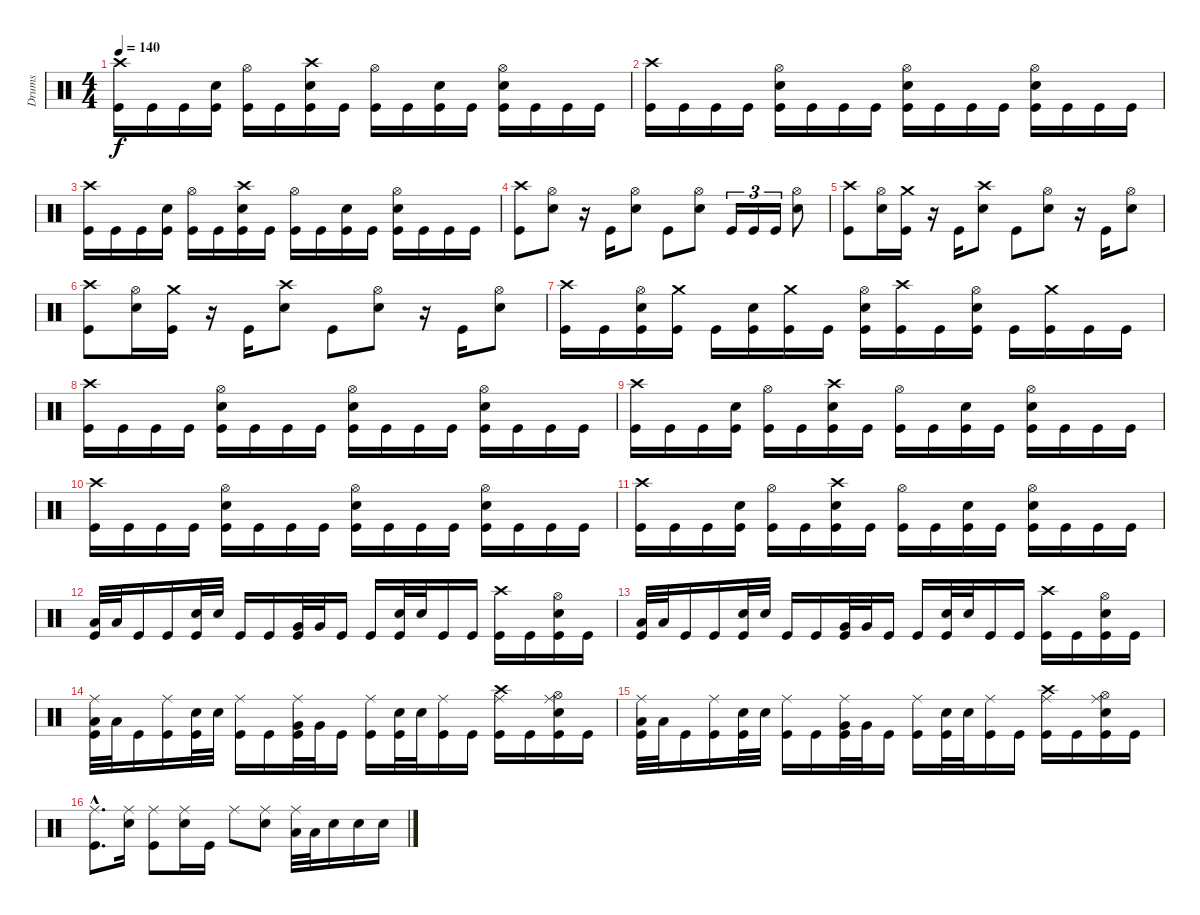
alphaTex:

\track ("Drums" "Drums") {instrument percussion}
\staff {score}
\articulation defaults
\ts (4 4)
\tempo 140
\clef neutral
\ks c
("Kick (hit)" "Crash high (hit)").16{dy f} "Kick (hit)".16 "Kick (hit)".16 ("Kick (hit)" "Snare (hit) 2").16 ("Kick (hit)" "Hi-Hat (open)").16 "Kick (hit)".16 ("Kick (hit)" "Snare (hit) 2" "Crash high (hit)").16 "Kick (hit)".16 ("Kick (hit)" "Hi-Hat (open)").16 "Kick (hit)".16 ("Kick (hit)" "Snare (hit) 2").16 "Kick (hit)".16 ("Kick (hit)" "Snare (hit) 2" "Hi-Hat (open)").16 "Kick (hit)".16 "Kick (hit)".16 "Kick (hit)".16 |
("Kick (hit)" "Crash high (hit)").16 "Kick (hit)".16 "Kick (hit)".16 "Kick (hit)".16 ("Kick (hit)" "Snare (hit) 2" "Hi-Hat (open)").16 "Kick (hit)".16 "Kick (hit)".16 "Kick (hit)".16 ("Kick (hit)" "Snare (hit) 2" "Hi-Hat (open)").16 "Kick (hit)".16 "Kick (hit)".16 "Kick (hit)".16 ("Kick (hit)" "Snare (hit) 2" "Hi-Hat (open)").16 "Kick (hit)".16 "Kick (hit)".16 "Kick (hit)".16 |
("Kick (hit)" "Crash high (hit)").16 "Kick (hit)".16 "Kick (hit)".16 ("Kick (hit)" "Snare (hit) 2").16 ("Kick (hit)" "Hi-Hat (open)").16 "Kick (hit)".16 ("Kick (hit)" "Snare (hit) 2" "Crash high (hit)").16 "Kick (hit)".16 ("Kick (hit)" "Hi-Hat (open)").16 "Kick (hit)".16 ("Kick (hit)" "Snare (hit) 2").16 "Kick (hit)".16 ("Kick (hit)" "Snare (hit) 2" "Hi-Hat (open)").16 "Kick (hit)".16 "Kick (hit)".16 "Kick (hit)".16 |
("Kick (hit)" "Crash high (hit)").8 ("Snare (hit) 2" "Hi-Hat (open)").8 r.16 "Kick (hit)".16 ("Snare (hit) 2" "Hi-Hat (open)").8 "Kick (hit)".8 ("Snare (hit) 2" "Hi-Hat (open)").8 "Kick (hit)".16{tu (3 2)} "Kick (hit)".16{tu (3 2)} "Kick (hit)".16{tu (3 2)} ("Snare (hit) 2" "Hi-Hat (open)").8 |
("Kick (hit)" "Crash high (hit)").8 ("Snare (hit) 2" "Hi-Hat (open)").16 ("Kick (hit)" "Crash medium (hit)").16 r.16 "Kick (hit)".16 ("Snare (hit) 2" "Crash high (hit)").8 "Kick (hit)".8 ("Snare (hit) 2" "Hi-Hat (open)").8 r.16 "Kick (hit)".16 ("Snare (hit) 2" "Hi-Hat (open)").8 |
("Kick (hit)" "Crash high (hit)").8 ("Snare (hit) 2" "Hi-Hat (open)").16 ("Kick (hit)" "Crash medium (hit)").16 r.16 "Kick (hit)".16 ("Snare (hit) 2" "Crash high (hit)").8 "Kick (hit)".8 ("Snare (hit) 2" "Hi-Hat (open)").8 r.16 "Kick (hit)".16 ("Snare (hit) 2" "Hi-Hat (open)").8 |
("Kick (hit)" "Crash high (hit)").16 "Kick (hit)".16 ("Kick (hit)" "Snare (hit) 2" "Hi-Hat (open)").16 ("Kick (hit)" "Crash medium (hit)").16 "Kick (hit)".16 ("Kick (hit)" "Snare (hit) 2").16 ("Kick (hit)" "Crash medium (hit)").16 "Kick (hit)".16 ("Kick (hit)" "Snare (hit) 2" "Hi-Hat (open)").16 ("Kick (hit)" "Crash high (hit)").16 "Kick (hit)".16 ("Kick (hit)" "Snare (hit) 2" "Hi-Hat (open)").16 "Kick (hit)".16 ("Kick (hit)" "Crash medium (hit)").16 "Kick (hit)".16 "Kick (hit)".16 |
("Kick (hit)" "Crash high (hit)").16 "Kick (hit)".16 "Kick (hit)".16 "Kick (hit)".16 ("Kick (hit)" "Snare (hit) 2" "Hi-Hat (open)").16 "Kick (hit)".16 "Kick (hit)".16 "Kick (hit)".16 ("Kick (hit)" "Snare (hit) 2" "Hi-Hat (open)").16 "Kick (hit)".16 "Kick (hit)".16 "Kick (hit)".16 ("Kick (hit)" "Snare (hit) 2" "Hi-Hat (open)").16 "Kick (hit)".16 "Kick (hit)".16 "Kick (hit)".16 |
("Kick (hit)" "Crash high (hit)").16 "Kick (hit)".16 "Kick (hit)".16 ("Kick (hit)" "Snare (hit) 2").16 ("Kick (hit)" "Hi-Hat (open)").16 "Kick (hit)".16 ("Kick (hit)" "Snare (hit) 2" "Crash high (hit)").16 "Kick (hit)".16 ("Kick (hit)" "Hi-Hat (open)").16 "Kick (hit)".16 ("Kick (hit)" "Snare (hit) 2").16 "Kick (hit)".16 ("Kick (hit)" "Snare (hit) 2" "Hi-Hat (open)").16 "Kick (hit)".16 "Kick (hit)".16 "Kick (hit)".16 |
("Kick (hit)" "Crash high (hit)").16 "Kick (hit)".16 "Kick (hit)".16 "Kick (hit)".16 ("Kick (hit)" "Snare (hit) 2" "Hi-Hat (open)").16 "Kick (hit)".16 "Kick (hit)".16 "Kick (hit)".16 ("Kick (hit)" "Snare (hit) 2" "Hi-Hat (open)").16 "Kick (hit)".16 "Kick (hit)".16 "Kick (hit)".16 ("Kick (hit)" "Snare (hit) 2" "Hi-Hat (open)").16 "Kick (hit)".16 "Kick (hit)".16 "Kick (hit)".16 |
("Kick (hit)" "Crash high (hit)").16 "Kick (hit)".16 "Kick (hit)".16 ("Kick (hit)" "Snare (hit) 2").16 ("Kick (hit)" "Hi-Hat (open)").16 "Kick (hit)".16 ("Kick (hit)" "Snare (hit) 2" "Crash high (hit)").16 "Kick (hit)".16 ("Kick (hit)" "Hi-Hat (open)").16 "Kick (hit)".16 ("Kick (hit)" "Snare (hit) 2").16 "Kick (hit)".16 ("Kick (hit)" "Snare (hit) 2" "Hi-Hat (open)").16 "Kick (hit)".16 "Kick (hit)".16 "Kick (hit)".16 |
("Kick (hit)" "Low Tom (hit)").32 "Low Tom (hit)".32 "Kick (hit)".16 "Kick (hit)".16 ("Kick (hit)" "Snare (hit) 2").32 "Snare (hit) 2".32 "Kick (hit)".16 "Kick (hit)".16 ("Kick (hit)" "Very Low Tom (hit)").32 "Very Low Tom (hit)".32 "Kick (hit)".16 "Kick (hit)".16 ("Kick (hit)" "Snare (hit) 2").32 "Snare (hit) 2".32 "Kick (hit)".16 "Kick (hit)".16 ("Kick (hit)" "Crash high (hit)").16 "Kick (hit)".16 ("Kick (hit)" "Snare (hit) 2" "Hi-Hat (open)").16 "Kick (hit)".16 |
("Kick (hit)" "Low Tom (hit)").32 "Low Tom (hit)".32 "Kick (hit)".16 "Kick (hit)".16 ("Kick (hit)" "Snare (hit) 2").32 "Snare (hit) 2".32 "Kick (hit)".16 "Kick (hit)".16 ("Kick (hit)" "Very Low Tom (hit)").32 "Very Low Tom (hit)".32 "Kick (hit)".16 "Kick (hit)".16 ("Kick (hit)" "Snare (hit) 2").32 "Snare (hit) 2".32 "Kick (hit)".16 "Kick (hit)".16 ("Kick (hit)" "Crash high (hit)").16 "Kick (hit)".16 ("Kick (hit)" "Snare (hit) 2" "Hi-Hat (open)").16 "Kick (hit)".16 |
("Kick (hit)" "Low Tom (hit)" "Ride (middle)").32 "Low Tom (hit)".32 "Kick (hit)".16 ("Kick (hit)" "Ride (middle)").16 ("Kick (hit)" "Snare (hit) 2").32 "Snare (hit) 2".32 ("Kick (hit)" "Ride (middle)").16 "Kick (hit)".16 ("Kick (hit)" "Very Low Tom (hit)" "Ride (middle)").32 "Very Low Tom (hit)".32 "Kick (hit)".16 ("Kick (hit)" "Ride (middle)").16 ("Kick (hit)" "Snare (hit) 2").32 "Snare (hit) 2".32 ("Kick (hit)" "Ride (middle)").16 "Kick (hit)".16 ("Kick (hit)" "Crash high (hit)" "Ride (middle)").16 "Kick (hit)".16 ("Kick (hit)" "Snare (hit) 2" "Hi-Hat (open)" "Ride (middle)").16 "Kick (hit)".16 |
("Kick (hit)" "Low Tom (hit)" "Ride (middle)").32 "Low Tom (hit)".32 "Kick (hit)".16 ("Kick (hit)" "Ride (middle)").16 ("Kick (hit)" "Snare (hit) 2").32 "Snare (hit) 2".32 ("Kick (hit)" "Ride (middle)").16 "Kick (hit)".16 ("Kick (hit)" "Very Low Tom (hit)" "Ride (middle)").32 "Very Low Tom (hit)".32 "Kick (hit)".16 ("Kick (hit)" "Ride (middle)").16 ("Kick (hit)" "Snare (hit) 2").32 "Snare (hit) 2".32 ("Kick (hit)" "Ride (middle)").16 "Kick (hit)".16 ("Kick (hit)" "Crash high (hit)" "Ride (middle)").16 "Kick (hit)".16 ("Kick (hit)" "Snare (hit) 2" "Hi-Hat (open)" "Ride (middle)").16 "Kick (hit)".16 |
("Kick (hit)"{hac} "Ride (middle)"{hac}).8{d} ("Snare (hit) 2" "Ride (middle)").16 ("Kick (hit)" "Ride (middle)").8 ("Snare (hit) 2" "Ride (middle)").16 "Kick (hit)".16 "Ride (middle)".8 ("Snare (hit) 2" "Ride (middle)").8 ("Low Tom (hit)" "Ride (middle)").32 "Low Tom (hit)".32 "Snare (hit) 2".16 "Snare (hit) 2".16 "Snare (hit) 2".16
